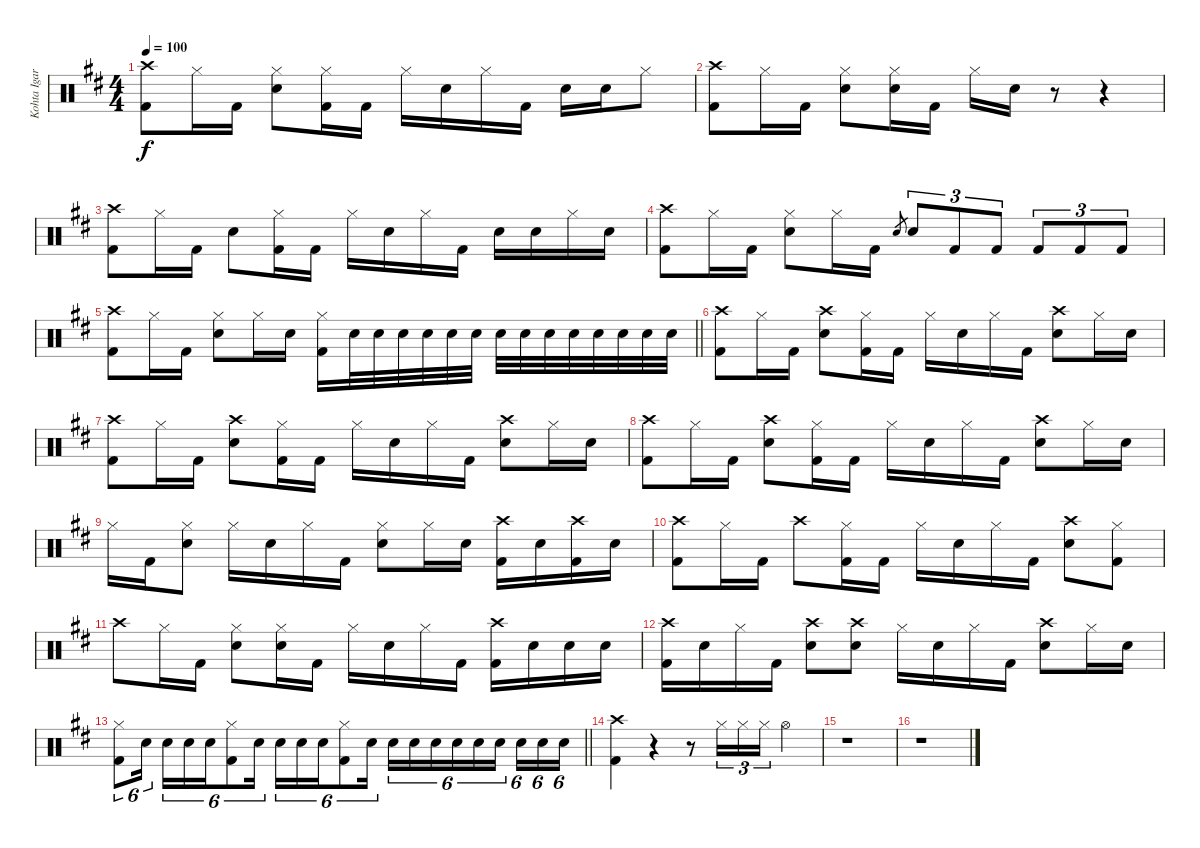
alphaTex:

\track ("Kohta Igarashi" "Kohta Igar") {instrument percussion}
\staff {score}
\articulation defaults
\ts (4 4)
\tempo 100
\clef neutral
\ks d
("Crash high (hit)" "Kick (hit) 2").8{dy f} "Hi-Hat (closed)".16 "Kick (hit) 2".16 ("Hi-Hat (closed)" "Electric Snare (hit)").8 ("Hi-Hat (closed)" "Kick (hit) 2").16 "Kick (hit) 2".16 "Hi-Hat (closed)".16 "Electric Snare (hit)".16 "Hi-Hat (closed)".16 "Kick (hit) 2".16 "Electric Snare (hit)".16 "Electric Snare (hit)".16 "Hi-Hat (closed)".8 |
("Crash high (hit)" "Kick (hit) 2").8 "Hi-Hat (closed)".16 "Kick (hit) 2".16 ("Hi-Hat (closed)" "Electric Snare (hit)").8 ("Hi-Hat (closed)" "Electric Snare (hit)").16 "Kick (hit) 2".16 "Hi-Hat (closed)".16 "Electric Snare (hit)".16 r.8 r.4 |
("Crash high (hit)" "Kick (hit) 2").8 "Hi-Hat (closed)".16 "Kick (hit) 2".16 "Electric Snare (hit)".8 ("Hi-Hat (closed)" "Kick (hit) 2").16 "Kick (hit) 2".16 "Hi-Hat (closed)".16 "Electric Snare (hit)".16 "Hi-Hat (closed)".16 "Kick (hit) 2".16 "Electric Snare (hit)".16 "Electric Snare (hit)".16 "Hi-Hat (closed)".16 "Electric Snare (hit)".16 |
("Crash high (hit)" "Kick (hit) 2").8 "Hi-Hat (closed)".16 "Kick (hit) 2".16 ("Hi-Hat (closed)" "Electric Snare (hit)").8 "Hi-Hat (closed)".16 "Kick (hit) 2".16 "Electric Snare (hit)".8{gr} "Electric Snare (hit)".8{tu (3 2)} "Kick (hit) 2".8{tu (3 2)} "Kick (hit) 2".8{tu (3 2)} "Kick (hit) 2".8{tu (3 2)} "Kick (hit) 2".8{tu (3 2)} "Kick (hit) 2".8{tu (3 2)} |
\barLineRight lightlight
("Crash high (hit)" "Kick (hit) 2").8 "Hi-Hat (closed)".16 "Kick (hit) 2".16 ("Hi-Hat (closed)" "Electric Snare (hit)").8 "Hi-Hat (closed)".16 "Electric Snare (hit)".16 ("Hi-Hat (closed)" "Kick (hit) 2").16 "Electric Snare (hit)".32 "Electric Snare (hit)".32 "Electric Snare (hit)".32 "Electric Snare (hit)".32 "Electric Snare (hit)".32 "Electric Snare (hit)".32 "Electric Snare (hit)".32 "Electric Snare (hit)".32 "Electric Snare (hit)".32 "Electric Snare (hit)".32 "Electric Snare (hit)".32 "Electric Snare (hit)".32 "Electric Snare (hit)".32 "Electric Snare (hit)".32 |
("Crash high (hit)" "Kick (hit) 2").8 "Hi-Hat (closed)".16 "Kick (hit) 2".16 ("Crash high (hit)" "Electric Snare (hit)").8 ("Hi-Hat (closed)" "Kick (hit) 2").16 "Kick (hit) 2".16 "Hi-Hat (closed)".16 "Electric Snare (hit)".16 "Hi-Hat (closed)".16 "Kick (hit) 2".16 ("Crash high (hit)" "Electric Snare (hit)").8 "Hi-Hat (closed)".16 "Electric Snare (hit)".16 |
("Crash high (hit)" "Kick (hit) 2").8 "Hi-Hat (closed)".16 "Kick (hit) 2".16 ("Crash high (hit)" "Electric Snare (hit)").8 ("Hi-Hat (closed)" "Kick (hit) 2").16 "Kick (hit) 2".16 "Hi-Hat (closed)".16 "Electric Snare (hit)".16 "Hi-Hat (closed)".16 "Kick (hit) 2".16 ("Crash high (hit)" "Electric Snare (hit)").8 "Hi-Hat (closed)".16 "Electric Snare (hit)".16 |
("Crash high (hit)" "Kick (hit) 2").8 "Hi-Hat (closed)".16 "Kick (hit) 2".16 ("Crash high (hit)" "Electric Snare (hit)").8 ("Hi-Hat (closed)" "Kick (hit) 2").16 "Kick (hit) 2".16 "Hi-Hat (closed)".16 "Electric Snare (hit)".16 "Hi-Hat (closed)".16 "Kick (hit) 2".16 ("Crash high (hit)" "Electric Snare (hit)").8 "Hi-Hat (closed)".16 "Electric Snare (hit)".16 |
"Hi-Hat (closed)".16 "Kick (hit) 2".16 ("Hi-Hat (closed)" "Electric Snare (hit)").8 "Hi-Hat (closed)".16 "Electric Snare (hit)".16 "Hi-Hat (closed)".16 "Kick (hit) 2".16 ("Hi-Hat (closed)" "Electric Snare (hit)").8 "Hi-Hat (closed)".16 "Electric Snare (hit)".16 ("Crash high (hit)" "Kick (hit) 2").16 "Electric Snare (hit)".16 ("Crash high (hit)" "Kick (hit) 2").16 "Electric Snare (hit)".16 |
("Crash high (hit)" "Kick (hit) 2").8 "Hi-Hat (closed)".16 "Kick (hit) 2".16 "Crash high (hit)".8 ("Hi-Hat (closed)" "Kick (hit) 2").16 "Kick (hit) 2".16 "Hi-Hat (closed)".16 "Electric Snare (hit)".16 "Hi-Hat (closed)".16 "Kick (hit) 2".16 ("Crash high (hit)" "Electric Snare (hit)").8 ("Hi-Hat (closed)" "Kick (hit) 2").8 |
"Crash high (hit)".8 "Hi-Hat (closed)".16 "Kick (hit) 2".16 ("Hi-Hat (closed)" "Electric Snare (hit)").8 ("Hi-Hat (closed)" "Electric Snare (hit)").16 "Kick (hit) 2".16 "Hi-Hat (closed)".16 "Electric Snare (hit)".16 "Hi-Hat (closed)".16 "Kick (hit) 2".16 ("Crash high (hit)" "Kick (hit) 2").16 "Electric Snare (hit)".16 "Electric Snare (hit)".16 "Electric Snare (hit)".16 |
("Crash high (hit)" "Kick (hit) 2").16 "Electric Snare (hit)".16 "Hi-Hat (closed)".16 "Kick (hit) 2".16 ("Crash high (hit)" "Electric Snare (hit)").8 ("Crash high (hit)" "Electric Snare (hit)").8 "Hi-Hat (closed)".16 "Electric Snare (hit)".16 "Hi-Hat (closed)".16 "Kick (hit) 2".16 ("Crash high (hit)" "Electric Snare (hit)").8 "Hi-Hat (closed)".16 "Electric Snare (hit)".16 |
\barLineRight lightlight
("Hi-Hat (closed)" "Kick (hit) 2").8{tu (6 4)} "Electric Snare (hit)".16{tu (6 4)} "Electric Snare (hit)".16{tu (6 4)} "Electric Snare (hit)".16{tu (6 4)} "Electric Snare (hit)".16{tu (6 4)} ("Hi-Hat (closed)" "Kick (hit) 2").8{tu (6 4)} "Electric Snare (hit)".16{tu (6 4)} "Electric Snare (hit)".16{tu (6 4)} "Electric Snare (hit)".16{tu (6 4)} "Electric Snare (hit)".16{tu (6 4)} ("Hi-Hat (closed)" "Kick (hit) 2").8{tu (6 4)} "Electric Snare (hit)".16{tu (6 4)} "Electric Snare (hit)".16{tu (6 4)} "Electric Snare (hit)".16{tu (6 4)} "Electric Snare (hit)".16{tu (6 4)} "Electric Snare (hit)".16{tu (6 4)} "Electric Snare (hit)".16{tu (6 4)} "Electric Snare (hit)".16{tu (6 4)} "Electric Snare (hit)".16{tu (6 4)} "Electric Snare (hit)".16{tu (6 4)} "Electric Snare (hit)".16{tu (6 4)} |
("Crash high (hit)" "Kick (hit) 2").4 r.4 r.8 "Hi-Hat (closed)".16{tu (3 2)} "Hi-Hat (closed)".16{tu (3 2)} "Hi-Hat (closed)".16{tu (3 2)} "Hi-Hat (open)".4 |
r.1 |
r.1
